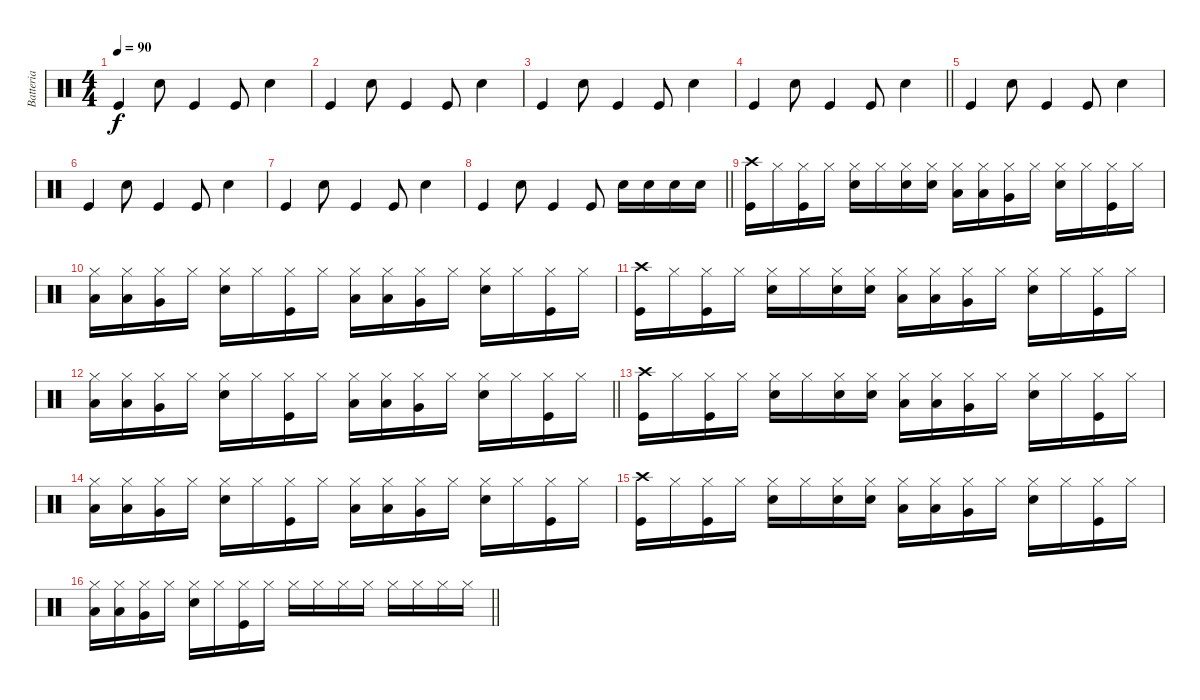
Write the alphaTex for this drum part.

\track ("Batteria" "Batteria") {instrument percussion}
\staff {score}
\articulation defaults
\ts (4 4)
\tempo 90
\clef neutral
\ks c "Kick (hit)".4{dy f} "Hand Clap (hit)".8 "Kick (hit)".4 "Kick (hit)".8 "Hand Clap (hit)".4
|
"Kick (hit)".4 "Hand Clap (hit)".8 "Kick (hit)".4 "Kick (hit)".8 "Hand Clap (hit)".4 |
"Kick (hit)".4 "Hand Clap (hit)".8 "Kick (hit)".4 "Kick (hit)".8 "Hand Clap (hit)".4 |
\barLineRight lightlight "Kick (hit)".4 "Hand Clap (hit)".8 "Kick (hit)".4 "Kick (hit)".8 "Hand Clap (hit)".4
|
"Kick (hit)".4 "Hand Clap (hit)".8 "Kick (hit)".4 "Kick (hit)".8 "Hand Clap (hit)".4 |
"Kick (hit)".4 "Hand Clap (hit)".8 "Kick (hit)".4 "Kick (hit)".8 "Hand Clap (hit)".4 |
"Kick (hit)".4 "Hand Clap (hit)".8 "Kick (hit)".4 "Kick (hit)".8 "Hand Clap (hit)".4 |
\barLineRight lightlight "Kick (hit)".4 "Hand Clap (hit)".8 "Kick (hit)".4 "Kick (hit)".8 "Snare (hit) 2".16 "Snare (hit) 2".16 "Snare (hit) 2".16 "Snare (hit) 2".16
|
("Kick (hit)" "Crash high (hit)").16 "Hi-Hat (closed)".16 ("Hi-Hat (closed)" "Kick (hit)").16 "Hi-Hat (closed)".16 ("Snare (hit) 2" "Hi-Hat (closed)").16 "Hi-Hat (closed)".16 ("Snare (hit) 2" "Hi-Hat (closed)").16 ("Snare (hit) 2" "Hi-Hat (closed)").16 ("Low Tom (hit)" "Hi-Hat (closed)").16 ("Low Tom (hit)" "Hi-Hat (closed)").16 ("Very Low Tom (hit)" "Hi-Hat (closed)").16 "Hi-Hat (closed)".16 ("Snare (hit) 2" "Hi-Hat (closed)").16 "Hi-Hat (closed)".16 ("Kick (hit)" "Hi-Hat (closed)").16 "Hi-Hat (closed)".16 |
("Low Tom (hit)" "Hi-Hat (closed)").16 ("Low Tom (hit)" "Hi-Hat (closed)").16 ("Very Low Tom (hit)" "Hi-Hat (closed)").16 "Hi-Hat (closed)".16 ("Snare (hit) 2" "Hi-Hat (closed)").16 "Hi-Hat (closed)".16 ("Kick (hit)" "Hi-Hat (closed)").16 "Hi-Hat (closed)".16 ("Low Tom (hit)" "Hi-Hat (closed)").16 ("Low Tom (hit)" "Hi-Hat (closed)").16 ("Very Low Tom (hit)" "Hi-Hat (closed)").16 "Hi-Hat (closed)".16 ("Snare (hit) 2" "Hi-Hat (closed)").16 "Hi-Hat (closed)".16 ("Kick (hit)" "Hi-Hat (closed)").16 "Hi-Hat (closed)".16 |
("Kick (hit)" "Crash high (hit)").16 "Hi-Hat (closed)".16 ("Hi-Hat (closed)" "Kick (hit)").16 "Hi-Hat (closed)".16 ("Snare (hit) 2" "Hi-Hat (closed)").16 "Hi-Hat (closed)".16 ("Snare (hit) 2" "Hi-Hat (closed)").16 ("Snare (hit) 2" "Hi-Hat (closed)").16 ("Low Tom (hit)" "Hi-Hat (closed)").16 ("Low Tom (hit)" "Hi-Hat (closed)").16 ("Very Low Tom (hit)" "Hi-Hat (closed)").16 "Hi-Hat (closed)".16 ("Snare (hit) 2" "Hi-Hat (closed)").16 "Hi-Hat (closed)".16 ("Kick (hit)" "Hi-Hat (closed)").16 "Hi-Hat (closed)".16 |
\barLineRight lightlight
("Low Tom (hit)" "Hi-Hat (closed)").16 ("Low Tom (hit)" "Hi-Hat (closed)").16 ("Very Low Tom (hit)" "Hi-Hat (closed)").16 "Hi-Hat (closed)".16 ("Snare (hit) 2" "Hi-Hat (closed)").16 "Hi-Hat (closed)".16 ("Kick (hit)" "Hi-Hat (closed)").16 "Hi-Hat (closed)".16 ("Low Tom (hit)" "Hi-Hat (closed)").16 ("Low Tom (hit)" "Hi-Hat (closed)").16 ("Very Low Tom (hit)" "Hi-Hat (closed)").16 "Hi-Hat (closed)".16 ("Snare (hit) 2" "Hi-Hat (closed)").16 "Hi-Hat (closed)".16 ("Kick (hit)" "Hi-Hat (closed)").16 "Hi-Hat (closed)".16 |
("Kick (hit)" "Crash high (hit)").16 "Hi-Hat (closed)".16 ("Hi-Hat (closed)" "Kick (hit)").16 "Hi-Hat (closed)".16 ("Snare (hit) 2" "Hi-Hat (closed)").16 "Hi-Hat (closed)".16 ("Snare (hit) 2" "Hi-Hat (closed)").16 ("Snare (hit) 2" "Hi-Hat (closed)").16 ("Low Tom (hit)" "Hi-Hat (closed)").16 ("Low Tom (hit)" "Hi-Hat (closed)").16 ("Very Low Tom (hit)" "Hi-Hat (closed)").16 "Hi-Hat (closed)".16 ("Snare (hit) 2" "Hi-Hat (closed)").16 "Hi-Hat (closed)".16 ("Kick (hit)" "Hi-Hat (closed)").16 "Hi-Hat (closed)".16 |
("Low Tom (hit)" "Hi-Hat (closed)").16 ("Low Tom (hit)" "Hi-Hat (closed)").16 ("Very Low Tom (hit)" "Hi-Hat (closed)").16 "Hi-Hat (closed)".16 ("Snare (hit) 2" "Hi-Hat (closed)").16 "Hi-Hat (closed)".16 ("Kick (hit)" "Hi-Hat (closed)").16 "Hi-Hat (closed)".16 ("Low Tom (hit)" "Hi-Hat (closed)").16 ("Low Tom (hit)" "Hi-Hat (closed)").16 ("Very Low Tom (hit)" "Hi-Hat (closed)").16 "Hi-Hat (closed)".16 ("Snare (hit) 2" "Hi-Hat (closed)").16 "Hi-Hat (closed)".16 ("Kick (hit)" "Hi-Hat (closed)").16 "Hi-Hat (closed)".16 |
("Kick (hit)" "Crash high (hit)").16 "Hi-Hat (closed)".16 ("Hi-Hat (closed)" "Kick (hit)").16 "Hi-Hat (closed)".16 ("Snare (hit) 2" "Hi-Hat (closed)").16 "Hi-Hat (closed)".16 ("Snare (hit) 2" "Hi-Hat (closed)").16 ("Snare (hit) 2" "Hi-Hat (closed)").16 ("Low Tom (hit)" "Hi-Hat (closed)").16 ("Low Tom (hit)" "Hi-Hat (closed)").16 ("Very Low Tom (hit)" "Hi-Hat (closed)").16 "Hi-Hat (closed)".16 ("Snare (hit) 2" "Hi-Hat (closed)").16 "Hi-Hat (closed)".16 ("Kick (hit)" "Hi-Hat (closed)").16 "Hi-Hat (closed)".16 |
\barLineRight lightlight
("Low Tom (hit)" "Hi-Hat (closed)").16 ("Low Tom (hit)" "Hi-Hat (closed)").16 ("Very Low Tom (hit)" "Hi-Hat (closed)").16 "Hi-Hat (closed)".16 ("Snare (hit) 2" "Hi-Hat (closed)").16 "Hi-Hat (closed)".16 ("Kick (hit)" "Hi-Hat (closed)").16 "Hi-Hat (closed)".16 "Hi-Hat (closed)".16 "Hi-Hat (closed)".16 "Hi-Hat (closed)".16 "Hi-Hat (closed)".16 "Hi-Hat (closed)".16 "Hi-Hat (closed)".16 "Hi-Hat (closed)".16 "Hi-Hat (closed)".16
